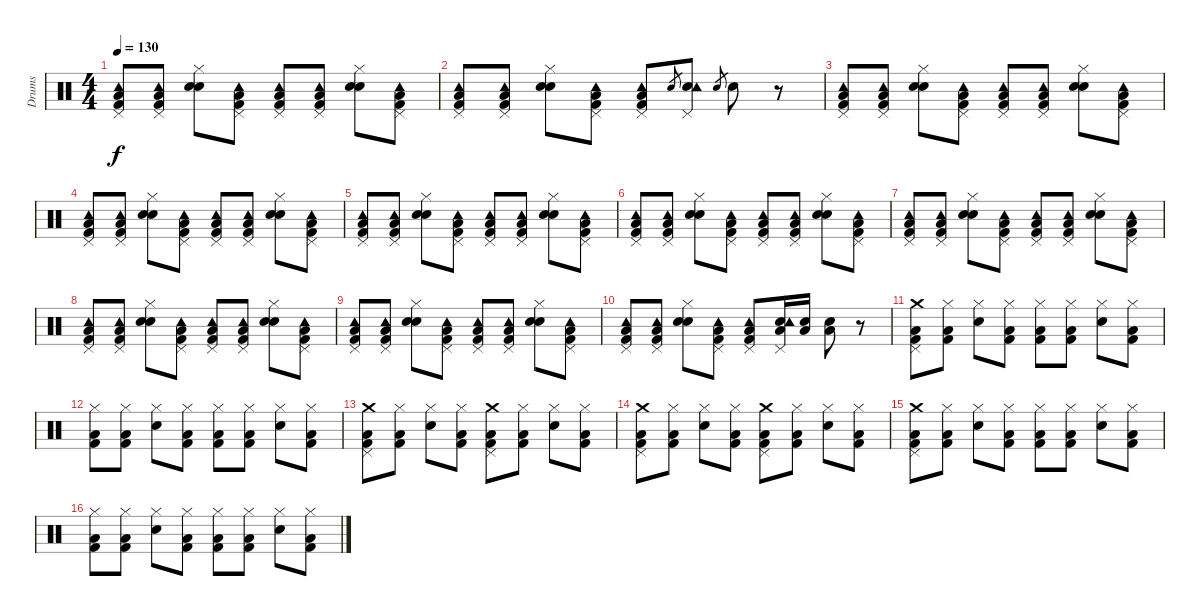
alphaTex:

\track ("Drums" "Drums") {instrument percussion}
\staff {score}
\articulation defaults
\ts (4 4)
\tempo 130
\clef neutral
\ks c
("Kick (hit) 2" "Low Floor Tom (hit)" "Pedal Hi-Hat (hit)" "Tambourine (hit)").8{dy f volume 13} ("Kick (hit) 2" "Low Floor Tom (hit)" "Pedal Hi-Hat (hit)" "Tambourine (hit)").8 ("Electric Snare (hit)" "Hand Clap (hit)" "Hi-Hat (closed)").8 ("Kick (hit) 2" "Low Floor Tom (hit)" "Pedal Hi-Hat (hit)" "Tambourine (hit)").8 ("Kick (hit) 2" "Low Floor Tom (hit)" "Pedal Hi-Hat (hit)" "Tambourine (hit)").8 ("Kick (hit) 2" "Low Floor Tom (hit)" "Pedal Hi-Hat (hit)" "Tambourine (hit)").8 ("Electric Snare (hit)" "Hand Clap (hit)" "Hi-Hat (closed)").8 ("Kick (hit) 2" "Low Floor Tom (hit)" "Pedal Hi-Hat (hit)" "Tambourine (hit)").8 |
("Kick (hit) 2" "Low Floor Tom (hit)" "Pedal Hi-Hat (hit)" "Tambourine (hit)").8{volume 13} ("Kick (hit) 2" "Low Floor Tom (hit)" "Pedal Hi-Hat (hit)" "Tambourine (hit)").8 ("Electric Snare (hit)" "Hand Clap (hit)" "Hi-Hat (closed)").8 ("Kick (hit) 2" "Low Floor Tom (hit)" "Pedal Hi-Hat (hit)" "Tambourine (hit)").8 ("Kick (hit) 2" "Low Floor Tom (hit)" "Pedal Hi-Hat (hit)" "Tambourine (hit)").8 "Electric Snare (hit)".8{gr} ("Electric Snare (hit)" "Pedal Hi-Hat (hit)" "Tambourine (hit)").8 "Electric Snare (hit)".8{gr} "Electric Snare (hit)".8 r.8 |
("Kick (hit) 2" "Low Floor Tom (hit)" "Pedal Hi-Hat (hit)" "Tambourine (hit)").8{volume 13} ("Kick (hit) 2" "Low Floor Tom (hit)" "Pedal Hi-Hat (hit)" "Tambourine (hit)").8 ("Electric Snare (hit)" "Hand Clap (hit)" "Hi-Hat (closed)").8 ("Kick (hit) 2" "Low Floor Tom (hit)" "Pedal Hi-Hat (hit)" "Tambourine (hit)").8 ("Kick (hit) 2" "Low Floor Tom (hit)" "Pedal Hi-Hat (hit)" "Tambourine (hit)").8 ("Kick (hit) 2" "Low Floor Tom (hit)" "Pedal Hi-Hat (hit)" "Tambourine (hit)").8 ("Electric Snare (hit)" "Hand Clap (hit)" "Hi-Hat (closed)").8 ("Kick (hit) 2" "Low Floor Tom (hit)" "Pedal Hi-Hat (hit)" "Tambourine (hit)").8 |
("Kick (hit) 2" "Low Floor Tom (hit)" "Pedal Hi-Hat (hit)" "Tambourine (hit)").8{volume 13} ("Kick (hit) 2" "Low Floor Tom (hit)" "Pedal Hi-Hat (hit)" "Tambourine (hit)").8 ("Electric Snare (hit)" "Hand Clap (hit)" "Hi-Hat (closed)").8 ("Kick (hit) 2" "Low Floor Tom (hit)" "Pedal Hi-Hat (hit)" "Tambourine (hit)").8 ("Kick (hit) 2" "Low Floor Tom (hit)" "Pedal Hi-Hat (hit)" "Tambourine (hit)").8 ("Kick (hit) 2" "Low Floor Tom (hit)" "Pedal Hi-Hat (hit)" "Tambourine (hit)").8 ("Electric Snare (hit)" "Hand Clap (hit)" "Hi-Hat (closed)").8 ("Kick (hit) 2" "Low Floor Tom (hit)" "Pedal Hi-Hat (hit)" "Tambourine (hit)").8 |
("Kick (hit) 2" "Low Floor Tom (hit)" "Pedal Hi-Hat (hit)" "Tambourine (hit)").8{volume 13} ("Kick (hit) 2" "Low Floor Tom (hit)" "Pedal Hi-Hat (hit)" "Tambourine (hit)").8 ("Electric Snare (hit)" "Hand Clap (hit)" "Hi-Hat (closed)").8 ("Kick (hit) 2" "Low Floor Tom (hit)" "Pedal Hi-Hat (hit)" "Tambourine (hit)").8 ("Kick (hit) 2" "Low Floor Tom (hit)" "Pedal Hi-Hat (hit)" "Tambourine (hit)").8 ("Kick (hit) 2" "Low Floor Tom (hit)" "Pedal Hi-Hat (hit)" "Tambourine (hit)").8 ("Electric Snare (hit)" "Hand Clap (hit)" "Hi-Hat (closed)").8 ("Kick (hit) 2" "Low Floor Tom (hit)" "Pedal Hi-Hat (hit)" "Tambourine (hit)").8 |
("Kick (hit) 2" "Low Floor Tom (hit)" "Pedal Hi-Hat (hit)" "Tambourine (hit)").8{volume 13} ("Kick (hit) 2" "Low Floor Tom (hit)" "Pedal Hi-Hat (hit)" "Tambourine (hit)").8 ("Electric Snare (hit)" "Hand Clap (hit)" "Hi-Hat (closed)").8 ("Kick (hit) 2" "Low Floor Tom (hit)" "Pedal Hi-Hat (hit)" "Tambourine (hit)").8 ("Kick (hit) 2" "Low Floor Tom (hit)" "Pedal Hi-Hat (hit)" "Tambourine (hit)").8 ("Kick (hit) 2" "Low Floor Tom (hit)" "Pedal Hi-Hat (hit)" "Tambourine (hit)").8 ("Electric Snare (hit)" "Hand Clap (hit)" "Hi-Hat (closed)").8 ("Kick (hit) 2" "Low Floor Tom (hit)" "Pedal Hi-Hat (hit)" "Tambourine (hit)").8 |
("Kick (hit) 2" "Low Floor Tom (hit)" "Pedal Hi-Hat (hit)" "Tambourine (hit)").8{volume 13} ("Kick (hit) 2" "Low Floor Tom (hit)" "Pedal Hi-Hat (hit)" "Tambourine (hit)").8 ("Electric Snare (hit)" "Hand Clap (hit)" "Hi-Hat (closed)").8 ("Kick (hit) 2" "Low Floor Tom (hit)" "Pedal Hi-Hat (hit)" "Tambourine (hit)").8 ("Kick (hit) 2" "Low Floor Tom (hit)" "Pedal Hi-Hat (hit)" "Tambourine (hit)").8 ("Kick (hit) 2" "Low Floor Tom (hit)" "Pedal Hi-Hat (hit)" "Tambourine (hit)").8 ("Electric Snare (hit)" "Hand Clap (hit)" "Hi-Hat (closed)").8 ("Kick (hit) 2" "Low Floor Tom (hit)" "Pedal Hi-Hat (hit)" "Tambourine (hit)").8 |
("Kick (hit) 2" "Low Floor Tom (hit)" "Pedal Hi-Hat (hit)" "Tambourine (hit)").8{volume 13} ("Kick (hit) 2" "Low Floor Tom (hit)" "Pedal Hi-Hat (hit)" "Tambourine (hit)").8 ("Electric Snare (hit)" "Hand Clap (hit)" "Hi-Hat (closed)").8 ("Kick (hit) 2" "Low Floor Tom (hit)" "Pedal Hi-Hat (hit)" "Tambourine (hit)").8 ("Kick (hit) 2" "Low Floor Tom (hit)" "Pedal Hi-Hat (hit)" "Tambourine (hit)").8 ("Kick (hit) 2" "Low Floor Tom (hit)" "Pedal Hi-Hat (hit)" "Tambourine (hit)").8 ("Electric Snare (hit)" "Hand Clap (hit)" "Hi-Hat (closed)").8 ("Kick (hit) 2" "Low Floor Tom (hit)" "Pedal Hi-Hat (hit)" "Tambourine (hit)").8 |
("Kick (hit) 2" "Low Floor Tom (hit)" "Pedal Hi-Hat (hit)" "Tambourine (hit)").8{volume 13} ("Kick (hit) 2" "Low Floor Tom (hit)" "Pedal Hi-Hat (hit)" "Tambourine (hit)").8 ("Electric Snare (hit)" "Hand Clap (hit)" "Hi-Hat (closed)").8 ("Kick (hit) 2" "Low Floor Tom (hit)" "Pedal Hi-Hat (hit)" "Tambourine (hit)").8 ("Kick (hit) 2" "Low Floor Tom (hit)" "Pedal Hi-Hat (hit)" "Tambourine (hit)").8 ("Kick (hit) 2" "Low Floor Tom (hit)" "Pedal Hi-Hat (hit)" "Tambourine (hit)").8 ("Electric Snare (hit)" "Hand Clap (hit)" "Hi-Hat (closed)").8 ("Kick (hit) 2" "Low Floor Tom (hit)" "Pedal Hi-Hat (hit)" "Tambourine (hit)").8 |
("Kick (hit) 2" "Low Floor Tom (hit)" "Pedal Hi-Hat (hit)" "Tambourine (hit)").8{volume 13} ("Kick (hit) 2" "Low Floor Tom (hit)" "Pedal Hi-Hat (hit)" "Tambourine (hit)").8 ("Electric Snare (hit)" "Hand Clap (hit)" "Hi-Hat (closed)").8 ("Kick (hit) 2" "Low Floor Tom (hit)" "Pedal Hi-Hat (hit)" "Tambourine (hit)").8 ("Kick (hit) 2" "Low Floor Tom (hit)" "Pedal Hi-Hat (hit)" "Tambourine (hit)").8 ("Electric Snare (hit)" "Low Floor Tom (hit)" "Pedal Hi-Hat (hit)" "Tambourine (hit)").16 ("Electric Snare (hit)" "Low Floor Tom (hit)").16 ("Electric Snare (hit)" "Low Floor Tom (hit)").8 r.8 |
("Kick (hit) 2" "Low Floor Tom (hit)" "Pedal Hi-Hat (hit)" "Crash medium (hit)").8 ("Kick (hit) 2" "Low Floor Tom (hit)" "Hi-Hat (closed)").8 ("Electric Snare (hit)" "Hi-Hat (closed)").8 ("Kick (hit) 2" "Low Floor Tom (hit)" "Hi-Hat (closed)").8 ("Kick (hit) 2" "Low Floor Tom (hit)" "Hi-Hat (closed)").8 ("Kick (hit) 2" "Low Floor Tom (hit)" "Hi-Hat (closed)").8 ("Electric Snare (hit)" "Hi-Hat (closed)").8 ("Kick (hit) 2" "Low Floor Tom (hit)" "Hi-Hat (closed)").8 |
("Kick (hit) 2" "Low Floor Tom (hit)" "Hi-Hat (closed)").8 ("Kick (hit) 2" "Low Floor Tom (hit)" "Hi-Hat (closed)").8 ("Electric Snare (hit)" "Hi-Hat (closed)").8 ("Kick (hit) 2" "Low Floor Tom (hit)" "Hi-Hat (closed)").8 ("Kick (hit) 2" "Low Floor Tom (hit)" "Hi-Hat (closed)").8 ("Kick (hit) 2" "Low Floor Tom (hit)" "Hi-Hat (closed)").8 ("Electric Snare (hit)" "Hi-Hat (closed)").8 ("Kick (hit) 2" "Low Floor Tom (hit)" "Hi-Hat (closed)").8 |
("Kick (hit) 2" "Low Floor Tom (hit)" "Pedal Hi-Hat (hit)" "Crash medium (hit)").8 ("Kick (hit) 2" "Low Floor Tom (hit)" "Hi-Hat (closed)").8 ("Electric Snare (hit)" "Hi-Hat (closed)").8 ("Kick (hit) 2" "Low Floor Tom (hit)" "Hi-Hat (closed)").8 ("Kick (hit) 2" "Low Floor Tom (hit)" "Pedal Hi-Hat (hit)" "Crash medium (hit)").8 ("Kick (hit) 2" "Low Floor Tom (hit)" "Hi-Hat (closed)").8 ("Electric Snare (hit)" "Hi-Hat (closed)").8 ("Kick (hit) 2" "Low Floor Tom (hit)" "Hi-Hat (closed)").8 |
("Kick (hit) 2" "Low Floor Tom (hit)" "Pedal Hi-Hat (hit)" "Crash medium (hit)").8 ("Kick (hit) 2" "Low Floor Tom (hit)" "Hi-Hat (closed)").8 ("Electric Snare (hit)" "Hi-Hat (closed)").8 ("Kick (hit) 2" "Low Floor Tom (hit)" "Hi-Hat (closed)").8 ("Kick (hit) 2" "Low Floor Tom (hit)" "Pedal Hi-Hat (hit)" "Crash medium (hit)").8 ("Kick (hit) 2" "Low Floor Tom (hit)" "Hi-Hat (closed)").8 ("Electric Snare (hit)" "Hi-Hat (closed)").8 ("Kick (hit) 2" "Low Floor Tom (hit)" "Hi-Hat (closed)").8 |
("Kick (hit) 2" "Low Floor Tom (hit)" "Pedal Hi-Hat (hit)" "Crash medium (hit)").8 ("Kick (hit) 2" "Low Floor Tom (hit)" "Hi-Hat (closed)").8 ("Electric Snare (hit)" "Hi-Hat (closed)").8 ("Kick (hit) 2" "Low Floor Tom (hit)" "Hi-Hat (closed)").8 ("Kick (hit) 2" "Low Floor Tom (hit)" "Hi-Hat (closed)").8 ("Kick (hit) 2" "Low Floor Tom (hit)" "Hi-Hat (closed)").8 ("Electric Snare (hit)" "Hi-Hat (closed)").8 ("Kick (hit) 2" "Low Floor Tom (hit)" "Hi-Hat (closed)").8 |
("Kick (hit) 2" "Low Floor Tom (hit)" "Hi-Hat (closed)").8 ("Kick (hit) 2" "Low Floor Tom (hit)" "Hi-Hat (closed)").8 ("Electric Snare (hit)" "Hi-Hat (closed)").8 ("Kick (hit) 2" "Low Floor Tom (hit)" "Hi-Hat (closed)").8 ("Kick (hit) 2" "Low Floor Tom (hit)" "Hi-Hat (closed)").8 ("Kick (hit) 2" "Low Floor Tom (hit)" "Hi-Hat (closed)").8 ("Electric Snare (hit)" "Hi-Hat (closed)").8 ("Kick (hit) 2" "Low Floor Tom (hit)" "Hi-Hat (closed)").8
